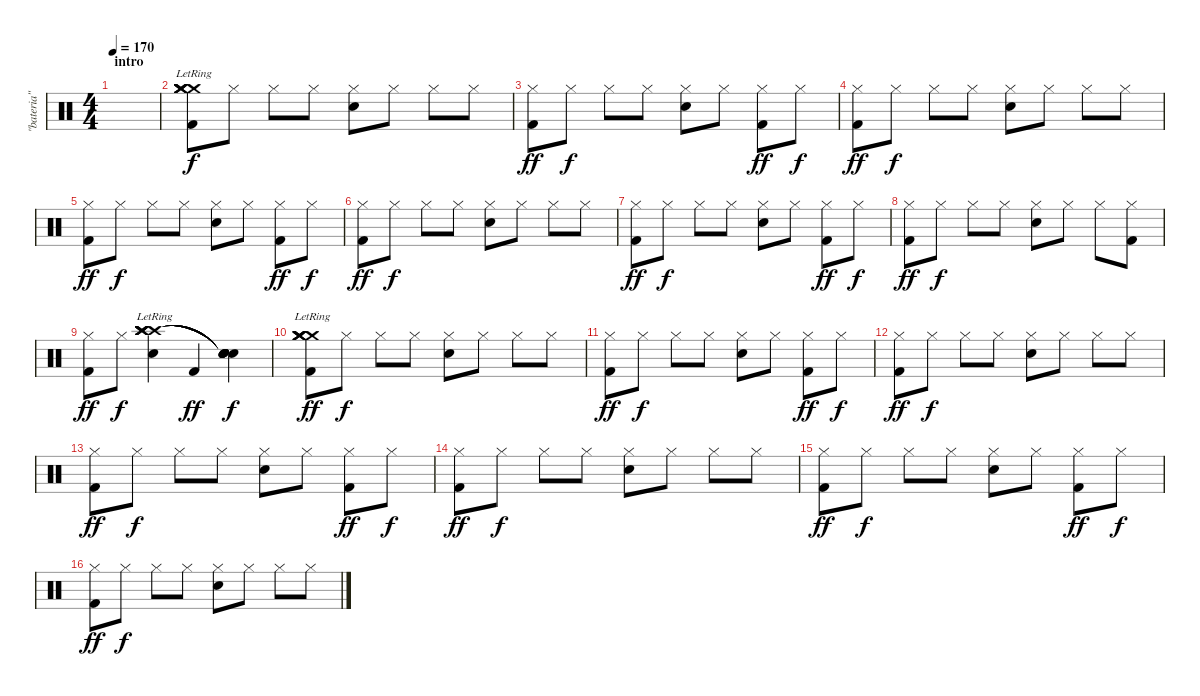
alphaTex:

\track ("\"bateria\"" "\"bateria\"") {instrument percussion}
\staff {score}
\articulation defaults
\ts (4 4)
\section ("" "intro")
\tempo 170
\clef neutral
\ks c
|
("Kick (hit) 2" "Crash medium (hit)"{lr} "Crash medium (hit)"{lr} "Crash medium (hit)"{lr} "Crash medium (hit)"{lr} "Crash medium (hit)"{lr}).8 "Hi-Hat (closed)".8{dy f} "Hi-Hat (closed)".8 "Hi-Hat (closed)".8 ("Electric Snare (hit)" "Hi-Hat (closed)").8 "Hi-Hat (closed)".8 "Hi-Hat (closed)".8 "Hi-Hat (closed)".8 |
("Kick (hit) 2" "Hi-Hat (closed)").8{dy ff} "Hi-Hat (closed)".8{dy f} "Hi-Hat (closed)".8 "Hi-Hat (closed)".8 ("Electric Snare (hit)" "Hi-Hat (closed)").8 "Hi-Hat (closed)".8 ("Kick (hit) 2" "Hi-Hat (closed)").8{dy ff} "Hi-Hat (closed)".8{dy f} |
("Kick (hit) 2" "Hi-Hat (closed)").8{dy ff} "Hi-Hat (closed)".8{dy f} "Hi-Hat (closed)".8 "Hi-Hat (closed)".8 ("Electric Snare (hit)" "Hi-Hat (closed)").8 "Hi-Hat (closed)".8 "Hi-Hat (closed)".8 "Hi-Hat (closed)".8 |
("Kick (hit) 2" "Hi-Hat (closed)").8{dy ff} "Hi-Hat (closed)".8{dy f} "Hi-Hat (closed)".8 "Hi-Hat (closed)".8 ("Electric Snare (hit)" "Hi-Hat (closed)").8 "Hi-Hat (closed)".8 ("Kick (hit) 2" "Hi-Hat (closed)").8{dy ff} "Hi-Hat (closed)".8{dy f} |
("Kick (hit) 2" "Hi-Hat (closed)").8{dy ff} "Hi-Hat (closed)".8{dy f} "Hi-Hat (closed)".8 "Hi-Hat (closed)".8 ("Electric Snare (hit)" "Hi-Hat (closed)").8 "Hi-Hat (closed)".8 "Hi-Hat (closed)".8 "Hi-Hat (closed)".8 |
("Kick (hit) 2" "Hi-Hat (closed)").8{dy ff} "Hi-Hat (closed)".8{dy f} "Hi-Hat (closed)".8 "Hi-Hat (closed)".8 ("Electric Snare (hit)" "Hi-Hat (closed)").8 "Hi-Hat (closed)".8 ("Kick (hit) 2" "Hi-Hat (closed)").8{dy ff} "Hi-Hat (closed)".8{dy f} |
("Kick (hit) 2" "Hi-Hat (closed)").8{dy ff} "Hi-Hat (closed)".8{dy f} "Hi-Hat (closed)".8 "Hi-Hat (closed)".8 ("Electric Snare (hit)" "Hi-Hat (closed)").8 "Hi-Hat (closed)".8 "Hi-Hat (closed)".8 ("Kick (hit) 2" "Hi-Hat (closed)").8 |
("Kick (hit) 2" "Hi-Hat (closed)").8{dy ff} "Hi-Hat (closed)".8{dy f} ("Electric Snare (hit)" "Crash high (hit)"{lr} "Crash high (hit)"{lr} "Crash high (hit)"{lr} "Crash high (hit)"{lr} "Crash high (hit)"{lr}).4 "Kick (hit) 2".4{dy ff} ("Electric Snare (hit)" "Snare (hit)"{t} "Snare (hit)"{t} "Snare (hit)"{t} "Snare (hit)"{t} "Snare (hit)"{t}).4{dy f} |
("Kick (hit) 2" "Crash medium (hit)"{lr} "Crash medium (hit)"{lr} "Crash medium (hit)"{lr} "Crash medium (hit)"{lr} "Crash medium (hit)"{lr}).8{dy ff} "Hi-Hat (closed)".8{dy f} "Hi-Hat (closed)".8 "Hi-Hat (closed)".8 ("Electric Snare (hit)" "Hi-Hat (closed)").8 "Hi-Hat (closed)".8 "Hi-Hat (closed)".8 "Hi-Hat (closed)".8 |
("Kick (hit) 2" "Hi-Hat (closed)").8{dy ff} "Hi-Hat (closed)".8{dy f} "Hi-Hat (closed)".8 "Hi-Hat (closed)".8 ("Electric Snare (hit)" "Hi-Hat (closed)").8 "Hi-Hat (closed)".8 ("Kick (hit) 2" "Hi-Hat (closed)").8{dy ff} "Hi-Hat (closed)".8{dy f} |
("Kick (hit) 2" "Hi-Hat (closed)").8{dy ff} "Hi-Hat (closed)".8{dy f} "Hi-Hat (closed)".8 "Hi-Hat (closed)".8 ("Electric Snare (hit)" "Hi-Hat (closed)").8 "Hi-Hat (closed)".8 "Hi-Hat (closed)".8 "Hi-Hat (closed)".8 |
("Kick (hit) 2" "Hi-Hat (closed)").8{dy ff} "Hi-Hat (closed)".8{dy f} "Hi-Hat (closed)".8 "Hi-Hat (closed)".8 ("Electric Snare (hit)" "Hi-Hat (closed)").8 "Hi-Hat (closed)".8 ("Kick (hit) 2" "Hi-Hat (closed)").8{dy ff} "Hi-Hat (closed)".8{dy f} |
("Kick (hit) 2" "Hi-Hat (closed)").8{dy ff} "Hi-Hat (closed)".8{dy f} "Hi-Hat (closed)".8 "Hi-Hat (closed)".8 ("Electric Snare (hit)" "Hi-Hat (closed)").8 "Hi-Hat (closed)".8 "Hi-Hat (closed)".8 "Hi-Hat (closed)".8 |
("Kick (hit) 2" "Hi-Hat (closed)").8{dy ff} "Hi-Hat (closed)".8{dy f} "Hi-Hat (closed)".8 "Hi-Hat (closed)".8 ("Electric Snare (hit)" "Hi-Hat (closed)").8 "Hi-Hat (closed)".8 ("Kick (hit) 2" "Hi-Hat (closed)").8{dy ff} "Hi-Hat (closed)".8{dy f} |
("Kick (hit) 2" "Hi-Hat (closed)").8{dy ff} "Hi-Hat (closed)".8{dy f} "Hi-Hat (closed)".8 "Hi-Hat (closed)".8 ("Electric Snare (hit)" "Hi-Hat (closed)").8 "Hi-Hat (closed)".8 "Hi-Hat (closed)".8 "Hi-Hat (closed)".8
